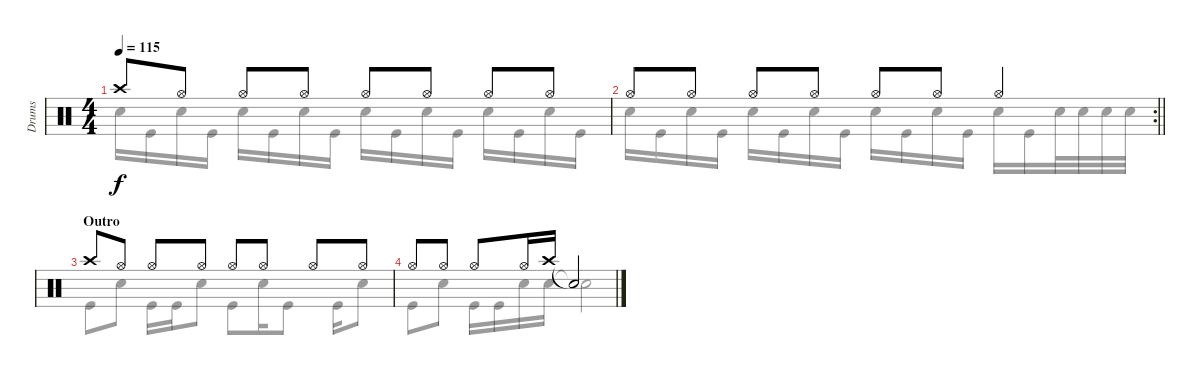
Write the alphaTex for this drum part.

\track ("Drums" "Drums") {instrument percussion}
\staff {score}
\articulation defaults
\voice
\ts (4 4)
\tempo 115
\clef neutral
\ks c "Crash high (hit)".8{dy f} "Hi-Hat (open)".8 "Hi-Hat (open)".8 "Hi-Hat (open)".8 "Hi-Hat (open)".8 "Hi-Hat (open)".8 "Hi-Hat (open)".8 "Hi-Hat (open)".8
|
\rc 2
\barLineRight lightlight "Hi-Hat (open)".8 "Hi-Hat (open)".8 "Hi-Hat (open)".8 "Hi-Hat (open)".8 "Hi-Hat (open)".8 "Hi-Hat (open)".8 "Hi-Hat (open)".4
|
\section ("" "Outro")
"Crash high (hit)".8 "Hi-Hat (open)".8 "Hi-Hat (open)".8 "Hi-Hat (open)".8 "Hi-Hat (open)".8 "Hi-Hat (open)".8 "Hi-Hat (open)".8 "Hi-Hat (open)".8 |
"Hi-Hat (open)".8 "Hi-Hat (open)".8 "Hi-Hat (open)".8 "Hi-Hat (open)".16 "Crash high (hit)".16 "Snare (hit)"{t}.2
\voice
\clef neutral
\ottava regular
\simile none
\ks c "Electric Snare (hit)".16{dy f} "Kick (hit)".16 "Electric Snare (hit)".16 "Kick (hit)".16 "Electric Snare (hit)".16 "Kick (hit)".16 "Electric Snare (hit)".16 "Kick (hit)".16 "Electric Snare (hit)".16 "Kick (hit)".16 "Electric Snare (hit)".16 "Kick (hit)".16 "Electric Snare (hit)".16 "Kick (hit)".16 "Electric Snare (hit)".16 "Kick (hit)".16
|
\barLineRight lightlight "Electric Snare (hit)".16 "Kick (hit)".16 "Electric Snare (hit)".16 "Kick (hit)".16 "Electric Snare (hit)".16 "Kick (hit)".16 "Electric Snare (hit)".16 "Kick (hit)".16 "Electric Snare (hit)".16 "Kick (hit)".16 "Electric Snare (hit)".16 "Kick (hit)".16 "Electric Snare (hit)".16 "Kick (hit)".16 "Electric Snare (hit)".32 "Electric Snare (hit)".32 "Electric Snare (hit)".32 "Electric Snare (hit)".32
|
"Kick (hit)".8 "Electric Snare (hit)".8 "Kick (hit)".16 "Kick (hit)".16 "Electric Snare (hit)".8 "Kick (hit)".8 "Electric Snare (hit)".16 "Kick (hit)".8 "Kick (hit)".16 "Electric Snare (hit)".8 |
"Kick (hit)".8 "Electric Snare (hit)".8 "Kick (hit)".16 "Kick (hit)".16 "Electric Snare (hit)".16 "Electric Snare (hit)".16 "Snare (hit)"{t}.2
